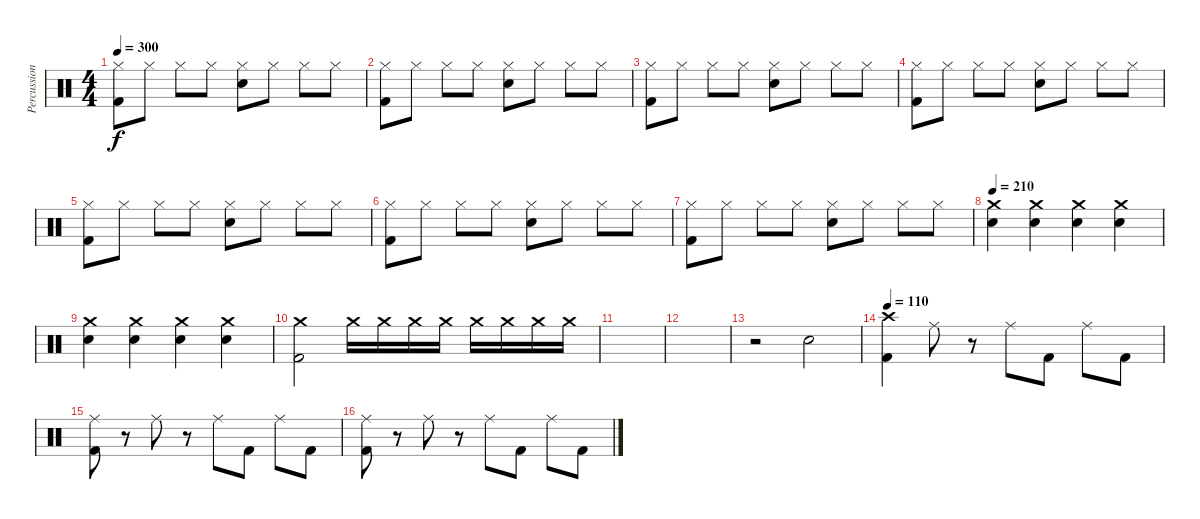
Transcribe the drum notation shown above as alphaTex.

\track ("Percussion" "Percussion") {instrument percussion}
\staff {score}
\articulation defaults
\ts (4 4)
\tempo 300
\clef neutral
\ks c
("Kick (hit) 2" "Hi-Hat (closed)").8{dy f} "Hi-Hat (closed)".8 "Hi-Hat (closed)".8 "Hi-Hat (closed)".8 ("Snare (hit) 2" "Hi-Hat (closed)").8 "Hi-Hat (closed)".8 "Hi-Hat (closed)".8 "Hi-Hat (closed)".8 |
("Kick (hit) 2" "Hi-Hat (closed)").8 "Hi-Hat (closed)".8 "Hi-Hat (closed)".8 "Hi-Hat (closed)".8 ("Snare (hit) 2" "Hi-Hat (closed)").8 "Hi-Hat (closed)".8 "Hi-Hat (closed)".8 "Hi-Hat (closed)".8 |
("Kick (hit) 2" "Hi-Hat (closed)").8 "Hi-Hat (closed)".8 "Hi-Hat (closed)".8 "Hi-Hat (closed)".8 ("Snare (hit) 2" "Hi-Hat (closed)").8 "Hi-Hat (closed)".8 "Hi-Hat (closed)".8 "Hi-Hat (closed)".8 |
("Kick (hit) 2" "Hi-Hat (closed)").8 "Hi-Hat (closed)".8 "Hi-Hat (closed)".8 "Hi-Hat (closed)".8 ("Snare (hit) 2" "Hi-Hat (closed)").8 "Hi-Hat (closed)".8 "Hi-Hat (closed)".8 "Hi-Hat (closed)".8 |
("Kick (hit) 2" "Hi-Hat (closed)").8 "Hi-Hat (closed)".8 "Hi-Hat (closed)".8 "Hi-Hat (closed)".8 ("Snare (hit) 2" "Hi-Hat (closed)").8 "Hi-Hat (closed)".8 "Hi-Hat (closed)".8 "Hi-Hat (closed)".8 |
("Kick (hit) 2" "Hi-Hat (closed)").8 "Hi-Hat (closed)".8 "Hi-Hat (closed)".8 "Hi-Hat (closed)".8 ("Snare (hit) 2" "Hi-Hat (closed)").8 "Hi-Hat (closed)".8 "Hi-Hat (closed)".8 "Hi-Hat (closed)".8 |
("Kick (hit) 2" "Hi-Hat (closed)").8 "Hi-Hat (closed)".8 "Hi-Hat (closed)".8 "Hi-Hat (closed)".8 ("Snare (hit) 2" "Hi-Hat (closed)").8 "Hi-Hat (closed)".8 "Hi-Hat (closed)".8 "Hi-Hat (closed)".8 |
\tempo 210
("Snare (hit) 2" "Crash medium (hit)").4 ("Snare (hit) 2" "Crash medium (hit)").4 ("Snare (hit) 2" "Crash medium (hit)").4 ("Snare (hit) 2" "Crash medium (hit)").4 |
("Snare (hit) 2" "Crash medium (hit)").4 ("Snare (hit) 2" "Crash medium (hit)").4 ("Snare (hit) 2" "Crash medium (hit)").4 ("Snare (hit) 2" "Crash medium (hit)").4 |
("Kick (hit) 2" "Crash medium (hit)").2 "Crash medium (hit)".16 "Crash medium (hit)".16 "Crash medium (hit)".16 "Crash medium (hit)".16 "Crash medium (hit)".16 "Crash medium (hit)".16 "Crash medium (hit)".16 "Crash medium (hit)".16 |
|
|
r.2 "Snare (hit) 2".2 |
\tempo 110
("Kick (hit) 2" "Crash high (hit)").4 "Ride (middle)".8 r.8 "Ride (middle)".8 "Kick (hit) 2".8 "Ride (middle)".8 "Kick (hit) 2".8 |
("Kick (hit) 2" "Ride (middle)").8 r.8 "Ride (middle)".8 r.8 "Ride (middle)".8 "Kick (hit) 2".8 "Ride (middle)".8 "Kick (hit) 2".8 |
("Kick (hit) 2" "Ride (middle)").8 r.8 "Ride (middle)".8 r.8 "Ride (middle)".8 "Kick (hit) 2".8 "Ride (middle)".8 "Kick (hit) 2".8
